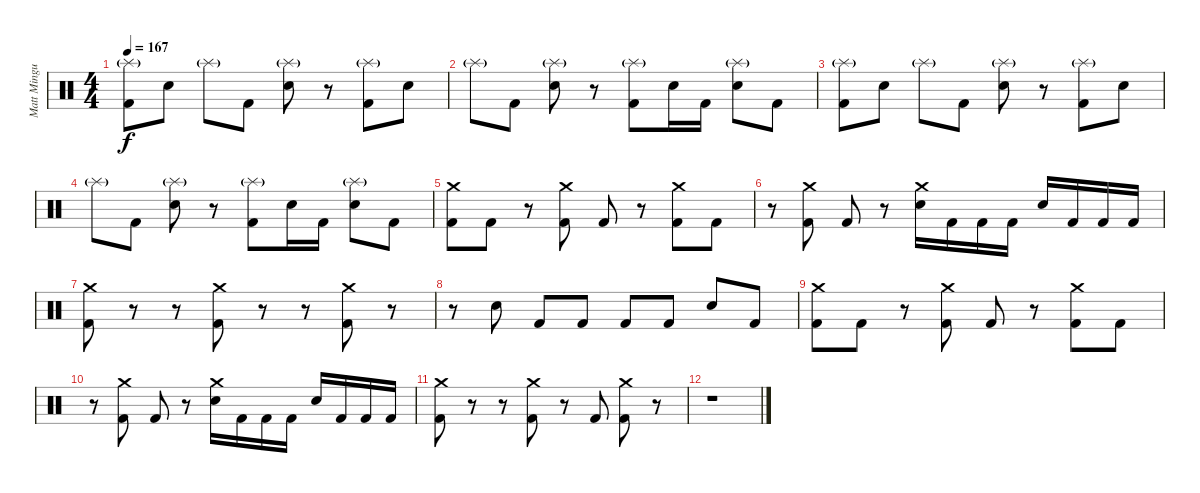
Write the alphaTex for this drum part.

\track ("Matt Mingus" "Matt Mingu") {instrument percussion}
\staff {score}
\articulation defaults
\ts (4 4)
\tempo 167
\clef neutral
\ks c
("Kick (hit) 2" "Splash (hit)"{g}).8{dy f} "Electric Snare (hit)".8 "Splash (hit)"{g}.8 "Kick (hit) 2".8 ("Electric Snare (hit)" "Splash (hit)"{g}).8 r.8 ("Kick (hit) 2" "Splash (hit)"{g}).8 "Electric Snare (hit)".8 |
"Splash (hit)"{g}.8 "Kick (hit) 2".8 ("Electric Snare (hit)" "Splash (hit)"{g}).8 r.8 ("Kick (hit) 2" "Splash (hit)"{g}).8 "Electric Snare (hit)".16 "Kick (hit) 2".16 ("Electric Snare (hit)" "Splash (hit)"{g}).8 "Kick (hit) 2".8 |
("Kick (hit) 2" "Splash (hit)"{g}).8 "Electric Snare (hit)".8 "Splash (hit)"{g}.8 "Kick (hit) 2".8 ("Electric Snare (hit)" "Splash (hit)"{g}).8 r.8 ("Kick (hit) 2" "Splash (hit)"{g}).8 "Electric Snare (hit)".8 |
"Splash (hit)"{g}.8 "Kick (hit) 2".8 ("Electric Snare (hit)" "Splash (hit)"{g}).8 r.8 ("Kick (hit) 2" "Splash (hit)"{g}).8 "Electric Snare (hit)".16 "Kick (hit) 2".16 ("Electric Snare (hit)" "Splash (hit)"{g}).8 "Kick (hit) 2".8 |
("Kick (hit) 2" "Crash medium (hit)").8 "Kick (hit) 2".8 r.8 ("Kick (hit) 2" "Crash medium (hit)").8 "Kick (hit) 2".8 r.8 ("Kick (hit) 2" "Crash medium (hit)").8 "Kick (hit) 2".8 |
r.8 ("Kick (hit) 2" "Crash medium (hit)").8 "Kick (hit) 2".8 r.8 ("Electric Snare (hit)" "Crash medium (hit)").16 "Kick (hit) 2".16 "Kick (hit) 2".16 "Kick (hit) 2".16 "Electric Snare (hit)".16 "Kick (hit) 2".16 "Kick (hit) 2".16 "Kick (hit) 2".16 |
("Kick (hit) 2" "Crash medium (hit)").8 r.8 r.8 ("Kick (hit) 2" "Crash medium (hit)").8 r.8 r.8 ("Kick (hit) 2" "Crash medium (hit)").8 r.8 |
r.8 "Electric Snare (hit)".8 "Kick (hit) 2".8 "Kick (hit) 2".8 "Kick (hit) 2".8 "Kick (hit) 2".8 "Electric Snare (hit)".8 "Kick (hit) 2".8 |
("Kick (hit) 2" "Crash medium (hit)").8 "Kick (hit) 2".8 r.8 ("Kick (hit) 2" "Crash medium (hit)").8 "Kick (hit) 2".8 r.8 ("Kick (hit) 2" "Crash medium (hit)").8 "Kick (hit) 2".8 |
r.8 ("Kick (hit) 2" "Crash medium (hit)").8 "Kick (hit) 2".8 r.8 ("Electric Snare (hit)" "Crash medium (hit)").16 "Kick (hit) 2".16 "Kick (hit) 2".16 "Kick (hit) 2".16 "Electric Snare (hit)".16 "Kick (hit) 2".16 "Kick (hit) 2".16 "Kick (hit) 2".16 |
("Kick (hit) 2" "Crash medium (hit)").8 r.8 r.8 ("Kick (hit) 2" "Crash medium (hit)").8 r.8 "Kick (hit) 2".8 ("Kick (hit) 2" "Crash medium (hit)").8 r.8 |
r.1
